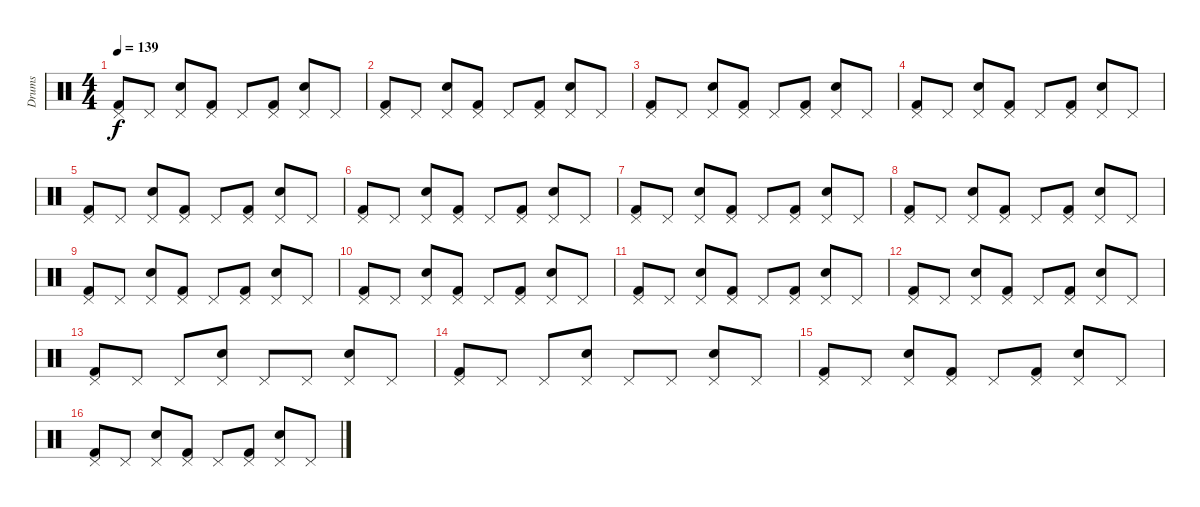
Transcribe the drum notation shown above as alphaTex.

\track ("Drums" "Drums") {instrument percussion}
\staff {score}
\articulation defaults
\ts (4 4)
\tempo 139
\clef neutral
\ks c
("Pedal Hi-Hat (hit)" "Kick (hit) 2").8{dy f} "Pedal Hi-Hat (hit)".8 ("Pedal Hi-Hat (hit)" "Snare (hit) 2").8 ("Pedal Hi-Hat (hit)" "Kick (hit) 2").8 "Pedal Hi-Hat (hit)".8 ("Pedal Hi-Hat (hit)" "Kick (hit) 2").8 ("Pedal Hi-Hat (hit)" "Snare (hit) 2").8 "Pedal Hi-Hat (hit)".8 |
("Pedal Hi-Hat (hit)" "Kick (hit) 2").8 "Pedal Hi-Hat (hit)".8 ("Pedal Hi-Hat (hit)" "Snare (hit) 2").8 ("Pedal Hi-Hat (hit)" "Kick (hit) 2").8 "Pedal Hi-Hat (hit)".8 ("Pedal Hi-Hat (hit)" "Kick (hit) 2").8 ("Pedal Hi-Hat (hit)" "Snare (hit) 2").8 "Pedal Hi-Hat (hit)".8 |
("Pedal Hi-Hat (hit)" "Kick (hit) 2").8 "Pedal Hi-Hat (hit)".8 ("Pedal Hi-Hat (hit)" "Snare (hit) 2").8 ("Pedal Hi-Hat (hit)" "Kick (hit) 2").8 "Pedal Hi-Hat (hit)".8 ("Pedal Hi-Hat (hit)" "Kick (hit) 2").8 ("Pedal Hi-Hat (hit)" "Snare (hit) 2").8 "Pedal Hi-Hat (hit)".8 |
("Pedal Hi-Hat (hit)" "Kick (hit) 2").8 "Pedal Hi-Hat (hit)".8 ("Pedal Hi-Hat (hit)" "Snare (hit) 2").8 ("Pedal Hi-Hat (hit)" "Kick (hit) 2").8 "Pedal Hi-Hat (hit)".8 ("Pedal Hi-Hat (hit)" "Kick (hit) 2").8 ("Pedal Hi-Hat (hit)" "Snare (hit) 2").8 "Pedal Hi-Hat (hit)".8 |
("Pedal Hi-Hat (hit)" "Kick (hit) 2").8 "Pedal Hi-Hat (hit)".8 ("Pedal Hi-Hat (hit)" "Snare (hit) 2").8 ("Pedal Hi-Hat (hit)" "Kick (hit) 2").8 "Pedal Hi-Hat (hit)".8 ("Pedal Hi-Hat (hit)" "Kick (hit) 2").8 ("Pedal Hi-Hat (hit)" "Snare (hit) 2").8 "Pedal Hi-Hat (hit)".8 |
("Pedal Hi-Hat (hit)" "Kick (hit) 2").8 "Pedal Hi-Hat (hit)".8 ("Pedal Hi-Hat (hit)" "Snare (hit) 2").8 ("Pedal Hi-Hat (hit)" "Kick (hit) 2").8 "Pedal Hi-Hat (hit)".8 ("Pedal Hi-Hat (hit)" "Kick (hit) 2").8 ("Pedal Hi-Hat (hit)" "Snare (hit) 2").8 "Pedal Hi-Hat (hit)".8 |
("Pedal Hi-Hat (hit)" "Kick (hit) 2").8 "Pedal Hi-Hat (hit)".8 ("Pedal Hi-Hat (hit)" "Snare (hit) 2").8 ("Pedal Hi-Hat (hit)" "Kick (hit) 2").8 "Pedal Hi-Hat (hit)".8 ("Pedal Hi-Hat (hit)" "Kick (hit) 2").8 ("Pedal Hi-Hat (hit)" "Snare (hit) 2").8 "Pedal Hi-Hat (hit)".8 |
("Pedal Hi-Hat (hit)" "Kick (hit) 2").8 "Pedal Hi-Hat (hit)".8 ("Pedal Hi-Hat (hit)" "Snare (hit) 2").8 ("Pedal Hi-Hat (hit)" "Kick (hit) 2").8 "Pedal Hi-Hat (hit)".8 ("Pedal Hi-Hat (hit)" "Kick (hit) 2").8 ("Pedal Hi-Hat (hit)" "Snare (hit) 2").8 "Pedal Hi-Hat (hit)".8 |
("Pedal Hi-Hat (hit)" "Kick (hit) 2").8 "Pedal Hi-Hat (hit)".8 ("Pedal Hi-Hat (hit)" "Snare (hit) 2").8 ("Pedal Hi-Hat (hit)" "Kick (hit) 2").8 "Pedal Hi-Hat (hit)".8 ("Pedal Hi-Hat (hit)" "Kick (hit) 2").8 ("Pedal Hi-Hat (hit)" "Snare (hit) 2").8 "Pedal Hi-Hat (hit)".8 |
("Pedal Hi-Hat (hit)" "Kick (hit) 2").8 "Pedal Hi-Hat (hit)".8 ("Pedal Hi-Hat (hit)" "Snare (hit) 2").8 ("Pedal Hi-Hat (hit)" "Kick (hit) 2").8 "Pedal Hi-Hat (hit)".8 ("Pedal Hi-Hat (hit)" "Kick (hit) 2").8 ("Pedal Hi-Hat (hit)" "Snare (hit) 2").8 "Pedal Hi-Hat (hit)".8 |
("Pedal Hi-Hat (hit)" "Kick (hit) 2").8 "Pedal Hi-Hat (hit)".8 ("Pedal Hi-Hat (hit)" "Snare (hit) 2").8 ("Pedal Hi-Hat (hit)" "Kick (hit) 2").8 "Pedal Hi-Hat (hit)".8 ("Pedal Hi-Hat (hit)" "Kick (hit) 2").8 ("Pedal Hi-Hat (hit)" "Snare (hit) 2").8 "Pedal Hi-Hat (hit)".8 |
("Pedal Hi-Hat (hit)" "Kick (hit) 2").8 "Pedal Hi-Hat (hit)".8 ("Pedal Hi-Hat (hit)" "Snare (hit) 2").8 ("Pedal Hi-Hat (hit)" "Kick (hit) 2").8 "Pedal Hi-Hat (hit)".8 ("Pedal Hi-Hat (hit)" "Kick (hit) 2").8 ("Pedal Hi-Hat (hit)" "Snare (hit) 2").8 "Pedal Hi-Hat (hit)".8 |
("Pedal Hi-Hat (hit)" "Kick (hit) 2").8 "Pedal Hi-Hat (hit)".8 "Pedal Hi-Hat (hit)".8 ("Pedal Hi-Hat (hit)" "Snare (hit) 2").8 "Pedal Hi-Hat (hit)".8 "Pedal Hi-Hat (hit)".8 ("Pedal Hi-Hat (hit)" "Snare (hit) 2").8 "Pedal Hi-Hat (hit)".8 |
("Pedal Hi-Hat (hit)" "Kick (hit) 2").8 "Pedal Hi-Hat (hit)".8 "Pedal Hi-Hat (hit)".8 ("Pedal Hi-Hat (hit)" "Snare (hit) 2").8 "Pedal Hi-Hat (hit)".8 "Pedal Hi-Hat (hit)".8 ("Pedal Hi-Hat (hit)" "Snare (hit) 2").8 "Pedal Hi-Hat (hit)".8 |
("Pedal Hi-Hat (hit)" "Kick (hit) 2").8 "Pedal Hi-Hat (hit)".8 ("Pedal Hi-Hat (hit)" "Snare (hit) 2").8 ("Pedal Hi-Hat (hit)" "Kick (hit) 2").8 "Pedal Hi-Hat (hit)".8 ("Pedal Hi-Hat (hit)" "Kick (hit) 2").8 ("Pedal Hi-Hat (hit)" "Snare (hit) 2").8 "Pedal Hi-Hat (hit)".8 |
("Pedal Hi-Hat (hit)" "Kick (hit) 2").8 "Pedal Hi-Hat (hit)".8 ("Pedal Hi-Hat (hit)" "Snare (hit) 2").8 ("Pedal Hi-Hat (hit)" "Kick (hit) 2").8 "Pedal Hi-Hat (hit)".8 ("Pedal Hi-Hat (hit)" "Kick (hit) 2").8 ("Pedal Hi-Hat (hit)" "Snare (hit) 2").8 "Pedal Hi-Hat (hit)".8
